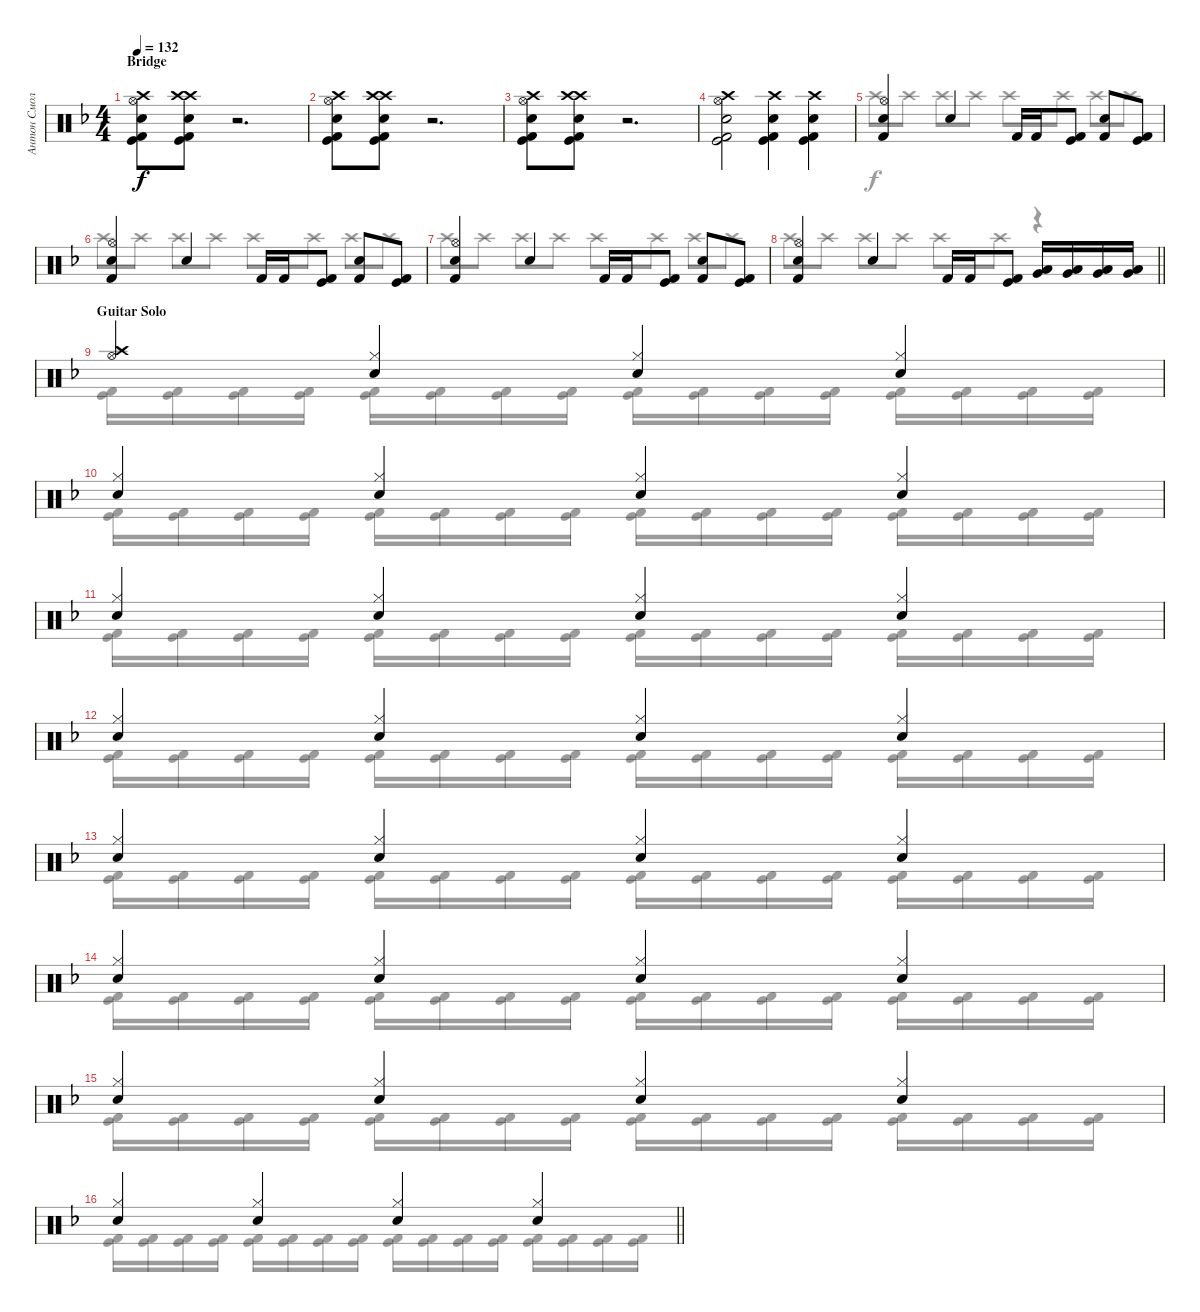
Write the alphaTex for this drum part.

\track ("Антон Смольянин" "Антон Смол") {instrument percussion}
\staff {score}
\articulation defaults
\voice
\ts (4 4)
\section ("" "Bridge")
\tempo 132
\clef neutral
\ks f
("Kick (hit) 2" "Kick (hit)" "Snare (hit) 2" "Crash high (hit)" "Hi-Hat (open)").8{dy f} ("Kick (hit) 2" "Kick (hit)" "Snare (hit) 2" "Crash high (hit)" "Crash high (hit)").8 r.2{d} |
("Kick (hit) 2" "Kick (hit)" "Snare (hit) 2" "Crash high (hit)" "Hi-Hat (open)").8 ("Kick (hit) 2" "Kick (hit)" "Snare (hit) 2" "Crash high (hit)" "Crash high (hit)").8 r.2{d} |
("Kick (hit) 2" "Kick (hit)" "Snare (hit) 2" "Crash high (hit)" "Hi-Hat (open)").8 ("Kick (hit) 2" "Kick (hit)" "Snare (hit) 2" "Crash high (hit)" "Crash high (hit)").8 r.2{d} |
("Kick (hit) 2" "Kick (hit)" "Snare (hit) 2" "Crash high (hit)" "Hi-Hat (open)").2 ("Kick (hit) 2" "Kick (hit)" "Snare (hit) 2" "Crash high (hit)").4 ("Kick (hit) 2" "Kick (hit)" "Snare (hit) 2" "Crash high (hit)").4 |
("Kick (hit) 2" "Snare (hit) 2" "Hi-Hat (open)").4 "Snare (hit) 2".4 "Kick (hit) 2".16 "Kick (hit) 2".16 ("Kick (hit) 2" "Kick (hit)").8 ("Kick (hit) 2" "Snare (hit) 2").8 ("Kick (hit) 2" "Kick (hit)").8 |
("Kick (hit) 2" "Snare (hit) 2" "Hi-Hat (open)").4 "Snare (hit) 2".4 "Kick (hit) 2".16 "Kick (hit) 2".16 ("Kick (hit) 2" "Kick (hit)").8 ("Kick (hit) 2" "Snare (hit) 2").8 ("Kick (hit) 2" "Kick (hit)").8 |
("Kick (hit) 2" "Snare (hit) 2" "Hi-Hat (open)").4 "Snare (hit) 2".4 "Kick (hit) 2".16 "Kick (hit) 2".16 ("Kick (hit) 2" "Kick (hit)").8 ("Kick (hit) 2" "Snare (hit) 2").8 ("Kick (hit) 2" "Kick (hit)").8 |
\barLineRight lightlight
("Kick (hit) 2" "Snare (hit) 2" "Hi-Hat (open)").4 "Snare (hit) 2".4 "Kick (hit) 2".16 "Kick (hit) 2".16 ("Kick (hit) 2" "Kick (hit)").8 ("Very Low Tom (hit)" "Low Tom (hit)").16 ("Low Tom (hit)" "Very Low Tom (hit)").16 ("Very Low Tom (hit)" "Low Tom (hit)").16 ("Low Tom (hit)" "Very Low Tom (hit)").16 |
\section ("" "Guitar Solo")
("Hi-Hat (open)" "Crash high (hit)").4 ("Hi-Hat (closed)" "Snare (hit) 2").4 ("Hi-Hat (closed)" "Snare (hit) 2").4 ("Hi-Hat (closed)" "Snare (hit) 2").4 |
("Hi-Hat (closed)" "Snare (hit) 2").4 ("Hi-Hat (closed)" "Snare (hit) 2").4 ("Hi-Hat (closed)" "Snare (hit) 2").4 ("Hi-Hat (closed)" "Snare (hit) 2").4 |
("Hi-Hat (closed)" "Snare (hit) 2").4 ("Hi-Hat (closed)" "Snare (hit) 2").4 ("Hi-Hat (closed)" "Snare (hit) 2").4 ("Hi-Hat (closed)" "Snare (hit) 2").4 |
("Hi-Hat (closed)" "Snare (hit) 2").4 ("Hi-Hat (closed)" "Snare (hit) 2").4 ("Hi-Hat (closed)" "Snare (hit) 2").4 ("Hi-Hat (closed)" "Snare (hit) 2").4 |
("Hi-Hat (closed)" "Snare (hit) 2").4 ("Hi-Hat (closed)" "Snare (hit) 2").4 ("Hi-Hat (closed)" "Snare (hit) 2").4 ("Hi-Hat (closed)" "Snare (hit) 2").4 |
("Hi-Hat (closed)" "Snare (hit) 2").4 ("Hi-Hat (closed)" "Snare (hit) 2").4 ("Hi-Hat (closed)" "Snare (hit) 2").4 ("Hi-Hat (closed)" "Snare (hit) 2").4 |
("Hi-Hat (closed)" "Snare (hit) 2").4 ("Hi-Hat (closed)" "Snare (hit) 2").4 ("Hi-Hat (closed)" "Snare (hit) 2").4 ("Hi-Hat (closed)" "Snare (hit) 2").4 |
\barLineRight lightlight
("Hi-Hat (closed)" "Snare (hit) 2").4 ("Hi-Hat (closed)" "Snare (hit) 2").4 ("Hi-Hat (closed)" "Snare (hit) 2").4 ("Hi-Hat (closed)" "Snare (hit) 2").4
\voice
\clef neutral
\ottava regular
\simile none
\ks f
|
|
|
|
"Crash high (hit)".8 "Crash high (hit)".8 "Crash high (hit)".8 "Crash high (hit)".8 "Crash high (hit)".8 "Crash high (hit)".8 "Crash high (hit)".8 "Crash high (hit)".8 |
"Crash high (hit)".8 "Crash high (hit)".8 "Crash high (hit)".8 "Crash high (hit)".8 "Crash high (hit)".8 "Crash high (hit)".8 "Crash high (hit)".8 "Crash high (hit)".8 |
"Crash high (hit)".8 "Crash high (hit)".8 "Crash high (hit)".8 "Crash high (hit)".8 "Crash high (hit)".8 "Crash high (hit)".8 "Crash high (hit)".8 "Crash high (hit)".8 |
\barLineRight lightlight "Crash high (hit)".8 "Crash high (hit)".8 "Crash high (hit)".8 "Crash high (hit)".8 "Crash high (hit)".8 "Crash high (hit)".8
r.4 |
("Kick (hit) 2" "Kick (hit)").16 ("Kick (hit) 2" "Kick (hit)").16 ("Kick (hit) 2" "Kick (hit)").16 ("Kick (hit) 2" "Kick (hit)").16 ("Kick (hit) 2" "Kick (hit)").16 ("Kick (hit) 2" "Kick (hit)").16 ("Kick (hit) 2" "Kick (hit)").16 ("Kick (hit) 2" "Kick (hit)").16 ("Kick (hit) 2" "Kick (hit)").16 ("Kick (hit) 2" "Kick (hit)").16 ("Kick (hit) 2" "Kick (hit)").16 ("Kick (hit) 2" "Kick (hit)").16 ("Kick (hit) 2" "Kick (hit)").16 ("Kick (hit) 2" "Kick (hit)").16 ("Kick (hit) 2" "Kick (hit)").16 ("Kick (hit) 2" "Kick (hit)").16 |
("Kick (hit) 2" "Kick (hit)").16 ("Kick (hit) 2" "Kick (hit)").16 ("Kick (hit) 2" "Kick (hit)").16 ("Kick (hit) 2" "Kick (hit)").16 ("Kick (hit) 2" "Kick (hit)").16 ("Kick (hit) 2" "Kick (hit)").16 ("Kick (hit) 2" "Kick (hit)").16 ("Kick (hit) 2" "Kick (hit)").16 ("Kick (hit) 2" "Kick (hit)").16 ("Kick (hit) 2" "Kick (hit)").16 ("Kick (hit) 2" "Kick (hit)").16 ("Kick (hit) 2" "Kick (hit)").16 ("Kick (hit) 2" "Kick (hit)").16 ("Kick (hit) 2" "Kick (hit)").16 ("Kick (hit) 2" "Kick (hit)").16 ("Kick (hit) 2" "Kick (hit)").16 |
("Kick (hit) 2" "Kick (hit)").16 ("Kick (hit) 2" "Kick (hit)").16 ("Kick (hit) 2" "Kick (hit)").16 ("Kick (hit) 2" "Kick (hit)").16 ("Kick (hit) 2" "Kick (hit)").16 ("Kick (hit) 2" "Kick (hit)").16 ("Kick (hit) 2" "Kick (hit)").16 ("Kick (hit) 2" "Kick (hit)").16 ("Kick (hit) 2" "Kick (hit)").16 ("Kick (hit) 2" "Kick (hit)").16 ("Kick (hit) 2" "Kick (hit)").16 ("Kick (hit) 2" "Kick (hit)").16 ("Kick (hit) 2" "Kick (hit)").16 ("Kick (hit) 2" "Kick (hit)").16 ("Kick (hit) 2" "Kick (hit)").16 ("Kick (hit) 2" "Kick (hit)").16 |
("Kick (hit) 2" "Kick (hit)").16 ("Kick (hit) 2" "Kick (hit)").16 ("Kick (hit) 2" "Kick (hit)").16 ("Kick (hit) 2" "Kick (hit)").16 ("Kick (hit) 2" "Kick (hit)").16 ("Kick (hit) 2" "Kick (hit)").16 ("Kick (hit) 2" "Kick (hit)").16 ("Kick (hit) 2" "Kick (hit)").16 ("Kick (hit) 2" "Kick (hit)").16 ("Kick (hit) 2" "Kick (hit)").16 ("Kick (hit) 2" "Kick (hit)").16 ("Kick (hit) 2" "Kick (hit)").16 ("Kick (hit) 2" "Kick (hit)").16 ("Kick (hit) 2" "Kick (hit)").16 ("Kick (hit) 2" "Kick (hit)").16 ("Kick (hit) 2" "Kick (hit)").16 |
("Kick (hit) 2" "Kick (hit)").16 ("Kick (hit) 2" "Kick (hit)").16 ("Kick (hit) 2" "Kick (hit)").16 ("Kick (hit) 2" "Kick (hit)").16 ("Kick (hit) 2" "Kick (hit)").16 ("Kick (hit) 2" "Kick (hit)").16 ("Kick (hit) 2" "Kick (hit)").16 ("Kick (hit) 2" "Kick (hit)").16 ("Kick (hit) 2" "Kick (hit)").16 ("Kick (hit) 2" "Kick (hit)").16 ("Kick (hit) 2" "Kick (hit)").16 ("Kick (hit) 2" "Kick (hit)").16 ("Kick (hit) 2" "Kick (hit)").16 ("Kick (hit) 2" "Kick (hit)").16 ("Kick (hit) 2" "Kick (hit)").16 ("Kick (hit) 2" "Kick (hit)").16 |
("Kick (hit) 2" "Kick (hit)").16 ("Kick (hit) 2" "Kick (hit)").16 ("Kick (hit) 2" "Kick (hit)").16 ("Kick (hit) 2" "Kick (hit)").16 ("Kick (hit) 2" "Kick (hit)").16 ("Kick (hit) 2" "Kick (hit)").16 ("Kick (hit) 2" "Kick (hit)").16 ("Kick (hit) 2" "Kick (hit)").16 ("Kick (hit) 2" "Kick (hit)").16 ("Kick (hit) 2" "Kick (hit)").16 ("Kick (hit) 2" "Kick (hit)").16 ("Kick (hit) 2" "Kick (hit)").16 ("Kick (hit) 2" "Kick (hit)").16 ("Kick (hit) 2" "Kick (hit)").16 ("Kick (hit) 2" "Kick (hit)").16 ("Kick (hit) 2" "Kick (hit)").16 |
("Kick (hit) 2" "Kick (hit)").16 ("Kick (hit) 2" "Kick (hit)").16 ("Kick (hit) 2" "Kick (hit)").16 ("Kick (hit) 2" "Kick (hit)").16 ("Kick (hit) 2" "Kick (hit)").16 ("Kick (hit) 2" "Kick (hit)").16 ("Kick (hit) 2" "Kick (hit)").16 ("Kick (hit) 2" "Kick (hit)").16 ("Kick (hit) 2" "Kick (hit)").16 ("Kick (hit) 2" "Kick (hit)").16 ("Kick (hit) 2" "Kick (hit)").16 ("Kick (hit) 2" "Kick (hit)").16 ("Kick (hit) 2" "Kick (hit)").16 ("Kick (hit) 2" "Kick (hit)").16 ("Kick (hit) 2" "Kick (hit)").16 ("Kick (hit) 2" "Kick (hit)").16 |
\barLineRight lightlight
("Kick (hit) 2" "Kick (hit)").16 ("Kick (hit) 2" "Kick (hit)").16 ("Kick (hit) 2" "Kick (hit)").16 ("Kick (hit) 2" "Kick (hit)").16 ("Kick (hit) 2" "Kick (hit)").16 ("Kick (hit) 2" "Kick (hit)").16 ("Kick (hit) 2" "Kick (hit)").16 ("Kick (hit) 2" "Kick (hit)").16 ("Kick (hit) 2" "Kick (hit)").16 ("Kick (hit) 2" "Kick (hit)").16 ("Kick (hit) 2" "Kick (hit)").16 ("Kick (hit) 2" "Kick (hit)").16 ("Kick (hit) 2" "Kick (hit)").16 ("Kick (hit) 2" "Kick (hit)").16 ("Kick (hit) 2" "Kick (hit)").16 ("Kick (hit) 2" "Kick (hit)").16
